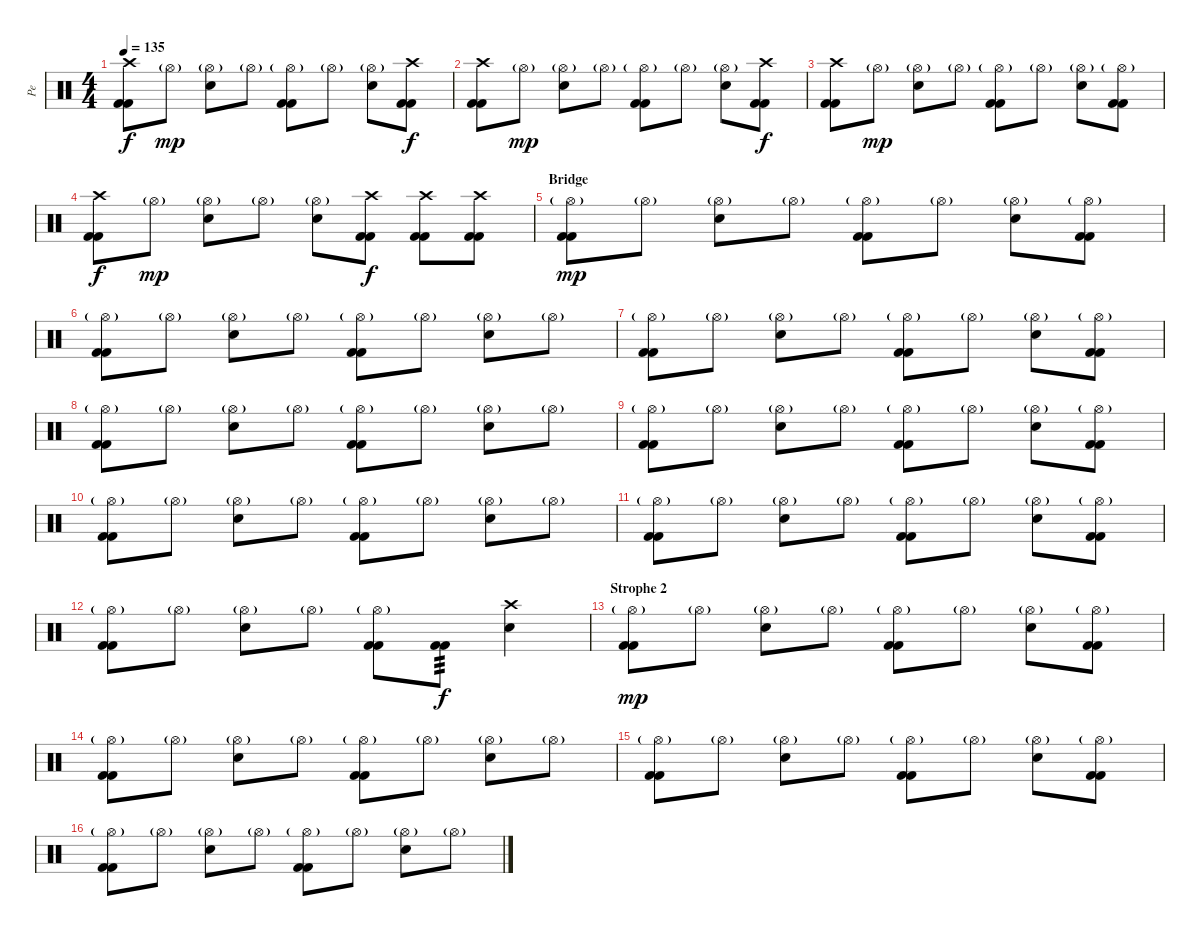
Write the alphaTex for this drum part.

\track ("Pe" "Pe") {instrument percussion}
\staff {score}
\articulation defaults
\ts (4 4)
\tempo 135
\clef neutral
\ks c
("Crash high (hit)" "Kick (hit) 2" "Kick (hit) 2").8{dy f} "Hi-Hat (open)"{g}.8{dy mp} ("Electric Snare (hit)" "Hi-Hat (open)"{g}).8 "Hi-Hat (open)"{g}.8 ("Hi-Hat (open)"{g} "Kick (hit) 2" "Kick (hit) 2").8 "Hi-Hat (open)"{g}.8 ("Electric Snare (hit)" "Hi-Hat (open)"{g}).8 ("Crash high (hit)" "Kick (hit) 2" "Kick (hit) 2").8{dy f} |
("Crash high (hit)" "Kick (hit) 2" "Kick (hit) 2").8 "Hi-Hat (open)"{g}.8{dy mp} ("Electric Snare (hit)" "Hi-Hat (open)"{g}).8 "Hi-Hat (open)"{g}.8 ("Hi-Hat (open)"{g} "Kick (hit) 2" "Kick (hit) 2").8 "Hi-Hat (open)"{g}.8 ("Electric Snare (hit)" "Hi-Hat (open)"{g}).8 ("Crash high (hit)" "Kick (hit) 2" "Kick (hit) 2").8{dy f} |
("Crash high (hit)" "Kick (hit) 2" "Kick (hit) 2").8 "Hi-Hat (open)"{g}.8{dy mp} ("Electric Snare (hit)" "Hi-Hat (open)"{g}).8 "Hi-Hat (open)"{g}.8 ("Hi-Hat (open)"{g} "Kick (hit) 2" "Kick (hit) 2").8 "Hi-Hat (open)"{g}.8 ("Electric Snare (hit)" "Hi-Hat (open)"{g}).8 ("Kick (hit) 2" "Kick (hit) 2" "Hi-Hat (open)"{g}).8 |
("Crash high (hit)" "Kick (hit) 2" "Kick (hit) 2").8{dy f} "Hi-Hat (open)"{g}.8{dy mp} ("Electric Snare (hit)" "Hi-Hat (open)"{g}).8 "Hi-Hat (open)"{g}.8 ("Hi-Hat (open)"{g} "Electric Snare (hit)").8 ("Kick (hit) 2" "Kick (hit) 2" "Crash high (hit)").8{dy f} ("Crash high (hit)" "Kick (hit) 2" "Kick (hit) 2").8 ("Crash high (hit)" "Kick (hit) 2" "Kick (hit) 2").8 |
\section ("" "Bridge")
("Hi-Hat (open)"{g} "Kick (hit) 2" "Kick (hit) 2").8{dy mp} "Hi-Hat (open)"{g}.8 ("Electric Snare (hit)" "Hi-Hat (open)"{g}).8 "Hi-Hat (open)"{g}.8 ("Hi-Hat (open)"{g} "Kick (hit) 2" "Kick (hit) 2").8 "Hi-Hat (open)"{g}.8 ("Electric Snare (hit)" "Hi-Hat (open)"{g}).8 ("Kick (hit) 2" "Kick (hit) 2" "Hi-Hat (open)"{g}).8 |
("Kick (hit) 2" "Kick (hit) 2" "Hi-Hat (open)"{g}).8 "Hi-Hat (open)"{g}.8 ("Hi-Hat (open)"{g} "Electric Snare (hit)").8 "Hi-Hat (open)"{g}.8 ("Hi-Hat (open)"{g} "Kick (hit) 2" "Kick (hit) 2").8 "Hi-Hat (open)"{g}.8 ("Electric Snare (hit)" "Hi-Hat (open)"{g}).8 "Hi-Hat (open)"{g}.8 |
("Hi-Hat (open)"{g} "Kick (hit) 2" "Kick (hit) 2").8 "Hi-Hat (open)"{g}.8 ("Electric Snare (hit)" "Hi-Hat (open)"{g}).8 "Hi-Hat (open)"{g}.8 ("Hi-Hat (open)"{g} "Kick (hit) 2" "Kick (hit) 2").8 "Hi-Hat (open)"{g}.8 ("Electric Snare (hit)" "Hi-Hat (open)"{g}).8 ("Kick (hit) 2" "Kick (hit) 2" "Hi-Hat (open)"{g}).8 |
("Hi-Hat (open)"{g} "Kick (hit) 2" "Kick (hit) 2").8 "Hi-Hat (open)"{g}.8 ("Electric Snare (hit)" "Hi-Hat (open)"{g}).8 "Hi-Hat (open)"{g}.8 ("Hi-Hat (open)"{g} "Kick (hit) 2" "Kick (hit) 2").8 "Hi-Hat (open)"{g}.8 ("Electric Snare (hit)" "Hi-Hat (open)"{g}).8 "Hi-Hat (open)"{g}.8 |
("Hi-Hat (open)"{g} "Kick (hit) 2" "Kick (hit) 2").8 "Hi-Hat (open)"{g}.8 ("Electric Snare (hit)" "Hi-Hat (open)"{g}).8 "Hi-Hat (open)"{g}.8 ("Hi-Hat (open)"{g} "Kick (hit) 2" "Kick (hit) 2").8 "Hi-Hat (open)"{g}.8 ("Electric Snare (hit)" "Hi-Hat (open)"{g}).8 ("Kick (hit) 2" "Kick (hit) 2" "Hi-Hat (open)"{g}).8 |
("Kick (hit) 2" "Kick (hit) 2" "Hi-Hat (open)"{g}).8 "Hi-Hat (open)"{g}.8 ("Hi-Hat (open)"{g} "Electric Snare (hit)").8 "Hi-Hat (open)"{g}.8 ("Hi-Hat (open)"{g} "Kick (hit) 2" "Kick (hit) 2").8 "Hi-Hat (open)"{g}.8 ("Electric Snare (hit)" "Hi-Hat (open)"{g}).8 "Hi-Hat (open)"{g}.8 |
("Hi-Hat (open)"{g} "Kick (hit) 2" "Kick (hit) 2").8 "Hi-Hat (open)"{g}.8 ("Electric Snare (hit)" "Hi-Hat (open)"{g}).8 "Hi-Hat (open)"{g}.8 ("Hi-Hat (open)"{g} "Kick (hit) 2" "Kick (hit) 2").8 "Hi-Hat (open)"{g}.8 ("Electric Snare (hit)" "Hi-Hat (open)"{g}).8 ("Kick (hit) 2" "Kick (hit) 2" "Hi-Hat (open)"{g}).8 |
("Hi-Hat (open)"{g} "Kick (hit) 2" "Kick (hit) 2").8 "Hi-Hat (open)"{g}.8 ("Electric Snare (hit)" "Hi-Hat (open)"{g}).8 "Hi-Hat (open)"{g}.8 ("Hi-Hat (open)"{g} "Kick (hit) 2" "Kick (hit) 2").8 ("Kick (hit) 2" "Kick (hit) 2").8{tp 3 dy f} ("Electric Snare (hit)" "Crash high (hit)").4 |
\section ("" "Strophe 2")
("Hi-Hat (open)"{g} "Kick (hit) 2" "Kick (hit) 2").8{dy mp} "Hi-Hat (open)"{g}.8 ("Electric Snare (hit)" "Hi-Hat (open)"{g}).8 "Hi-Hat (open)"{g}.8 ("Hi-Hat (open)"{g} "Kick (hit) 2" "Kick (hit) 2").8 "Hi-Hat (open)"{g}.8 ("Electric Snare (hit)" "Hi-Hat (open)"{g}).8 ("Kick (hit) 2" "Kick (hit) 2" "Hi-Hat (open)"{g}).8 |
("Kick (hit) 2" "Kick (hit) 2" "Hi-Hat (open)"{g}).8 "Hi-Hat (open)"{g}.8 ("Hi-Hat (open)"{g} "Electric Snare (hit)").8 "Hi-Hat (open)"{g}.8 ("Hi-Hat (open)"{g} "Kick (hit) 2" "Kick (hit) 2").8 "Hi-Hat (open)"{g}.8 ("Electric Snare (hit)" "Hi-Hat (open)"{g}).8 "Hi-Hat (open)"{g}.8 |
("Hi-Hat (open)"{g} "Kick (hit) 2" "Kick (hit) 2").8 "Hi-Hat (open)"{g}.8 ("Electric Snare (hit)" "Hi-Hat (open)"{g}).8 "Hi-Hat (open)"{g}.8 ("Hi-Hat (open)"{g} "Kick (hit) 2" "Kick (hit) 2").8 "Hi-Hat (open)"{g}.8 ("Electric Snare (hit)" "Hi-Hat (open)"{g}).8 ("Kick (hit) 2" "Kick (hit) 2" "Hi-Hat (open)"{g}).8 |
("Hi-Hat (open)"{g} "Kick (hit) 2" "Kick (hit) 2").8 "Hi-Hat (open)"{g}.8 ("Electric Snare (hit)" "Hi-Hat (open)"{g}).8 "Hi-Hat (open)"{g}.8 ("Hi-Hat (open)"{g} "Kick (hit) 2" "Kick (hit) 2").8 "Hi-Hat (open)"{g}.8 ("Electric Snare (hit)" "Hi-Hat (open)"{g}).8 "Hi-Hat (open)"{g}.8
